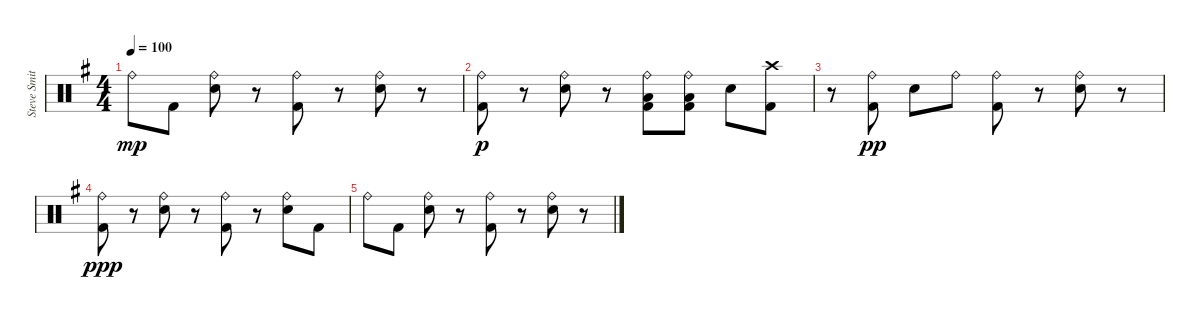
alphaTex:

\track ("Steve Smith" "Steve Smit") {instrument percussion}
\staff {score}
\articulation defaults
\ts (4 4)
\tempo 100
\clef neutral
\ks g "Ride (bell)".8{dy mp} "Kick (hit) 2".8
("Ride (bell)" "Snare (hit) 2").8 r.8 ("Ride (bell)" "Kick (hit) 2").8 r.8 ("Ride (bell)" "Snare (hit) 2").8 r.8 |
("Ride (bell)" "Kick (hit) 2").8{dy p} r.8 ("Ride (bell)" "Snare (hit) 2").8 r.8 ("Ride (bell)" "Low Tom (hit)" "Kick (hit) 2").8 ("Ride (bell)" "Low Tom (hit)" "Kick (hit) 2").8 "Snare (hit) 2".8 ("Crash high (hit)" "Kick (hit) 2").8 |
r.8 ("Ride (bell)" "Kick (hit) 2").8{dy pp} "Snare (hit) 2".8 "Ride (bell)".8 ("Ride (bell)" "Kick (hit) 2").8 r.8 ("Ride (bell)" "Snare (hit) 2").8 r.8 |
("Ride (bell)" "Kick (hit) 2").8{dy ppp} r.8 ("Ride (bell)" "Snare (hit) 2").8 r.8 ("Ride (bell)" "Kick (hit) 2").8 r.8 ("Ride (bell)" "Snare (hit) 2").8 "Kick (hit) 2".8 |
"Ride (bell)".8 "Kick (hit) 2".8 ("Ride (bell)" "Snare (hit) 2").8 r.8 ("Ride (bell)" "Kick (hit) 2").8 r.8 ("Ride (bell)" "Snare (hit) 2").8 r.8
